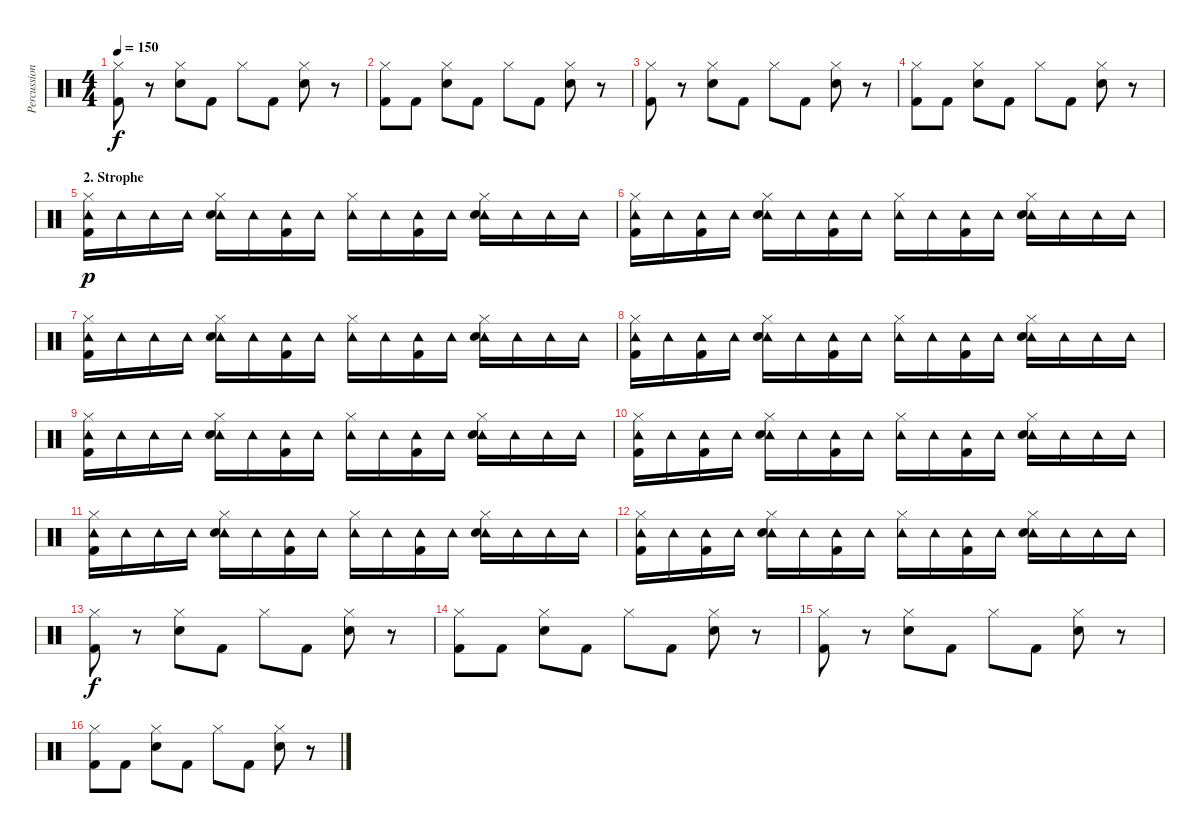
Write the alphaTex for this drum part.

\track ("Percussion" "Percussion") {instrument percussion}
\staff {score}
\articulation defaults
\ts (4 4)
\tempo 150
\clef neutral
\ks c
("Hi-Hat (closed)" "Kick (hit) 2").8{dy f} r.8 ("Hi-Hat (closed)" "Electric Snare (hit)").8 "Kick (hit) 2".8 "Hi-Hat (closed)".8 "Kick (hit) 2".8 ("Hi-Hat (closed)" "Electric Snare (hit)").8 r.8 |
("Hi-Hat (closed)" "Kick (hit) 2").8 "Kick (hit) 2".8 ("Hi-Hat (closed)" "Electric Snare (hit)").8 "Kick (hit) 2".8 "Hi-Hat (closed)".8 "Kick (hit) 2".8 ("Hi-Hat (closed)" "Electric Snare (hit)").8 r.8 |
("Hi-Hat (closed)" "Kick (hit) 2").8 r.8 ("Hi-Hat (closed)" "Electric Snare (hit)").8 "Kick (hit) 2".8 "Hi-Hat (closed)".8 "Kick (hit) 2".8 ("Hi-Hat (closed)" "Electric Snare (hit)").8 r.8 |
("Hi-Hat (closed)" "Kick (hit) 2").8 "Kick (hit) 2".8 ("Hi-Hat (closed)" "Electric Snare (hit)").8 "Kick (hit) 2".8 "Hi-Hat (closed)".8 "Kick (hit) 2".8 ("Hi-Hat (closed)" "Electric Snare (hit)").8 r.8 |
\section ("" "2. Strophe")
("Hi-Hat (closed)" "Tambourine (hit)" "Kick (hit) 2").16{dy p} "Tambourine (hit)".16 "Tambourine (hit)".16 "Tambourine (hit)".16 ("Hi-Hat (closed)" "Tambourine (hit)" "Electric Snare (hit)").16 "Tambourine (hit)".16 ("Tambourine (hit)" "Kick (hit) 2").16 "Tambourine (hit)".16 ("Hi-Hat (closed)" "Tambourine (hit)").16 "Tambourine (hit)".16 ("Tambourine (hit)" "Kick (hit) 2").16 "Tambourine (hit)".16 ("Hi-Hat (closed)" "Tambourine (hit)" "Electric Snare (hit)").16 "Tambourine (hit)".16 "Tambourine (hit)".16 "Tambourine (hit)".16 |
("Hi-Hat (closed)" "Tambourine (hit)" "Kick (hit) 2").16 "Tambourine (hit)".16 ("Tambourine (hit)" "Kick (hit) 2").16 "Tambourine (hit)".16 ("Hi-Hat (closed)" "Tambourine (hit)" "Electric Snare (hit)").16 "Tambourine (hit)".16 ("Tambourine (hit)" "Kick (hit) 2").16 "Tambourine (hit)".16 ("Hi-Hat (closed)" "Tambourine (hit)").16 "Tambourine (hit)".16 ("Tambourine (hit)" "Kick (hit) 2").16 "Tambourine (hit)".16 ("Hi-Hat (closed)" "Tambourine (hit)" "Electric Snare (hit)").16 "Tambourine (hit)".16 "Tambourine (hit)".16 "Tambourine (hit)".16 |
("Hi-Hat (closed)" "Tambourine (hit)" "Kick (hit) 2").16 "Tambourine (hit)".16 "Tambourine (hit)".16 "Tambourine (hit)".16 ("Hi-Hat (closed)" "Tambourine (hit)" "Electric Snare (hit)").16 "Tambourine (hit)".16 ("Tambourine (hit)" "Kick (hit) 2").16 "Tambourine (hit)".16 ("Hi-Hat (closed)" "Tambourine (hit)").16 "Tambourine (hit)".16 ("Tambourine (hit)" "Kick (hit) 2").16 "Tambourine (hit)".16 ("Hi-Hat (closed)" "Tambourine (hit)" "Electric Snare (hit)").16 "Tambourine (hit)".16 "Tambourine (hit)".16 "Tambourine (hit)".16 |
("Hi-Hat (closed)" "Tambourine (hit)" "Kick (hit) 2").16 "Tambourine (hit)".16 ("Tambourine (hit)" "Kick (hit) 2").16 "Tambourine (hit)".16 ("Hi-Hat (closed)" "Tambourine (hit)" "Electric Snare (hit)").16 "Tambourine (hit)".16 ("Tambourine (hit)" "Kick (hit) 2").16 "Tambourine (hit)".16 ("Hi-Hat (closed)" "Tambourine (hit)").16 "Tambourine (hit)".16 ("Tambourine (hit)" "Kick (hit) 2").16 "Tambourine (hit)".16 ("Hi-Hat (closed)" "Tambourine (hit)" "Electric Snare (hit)").16 "Tambourine (hit)".16 "Tambourine (hit)".16 "Tambourine (hit)".16 |
("Hi-Hat (closed)" "Tambourine (hit)" "Kick (hit) 2").16 "Tambourine (hit)".16 "Tambourine (hit)".16 "Tambourine (hit)".16 ("Hi-Hat (closed)" "Tambourine (hit)" "Electric Snare (hit)").16 "Tambourine (hit)".16 ("Tambourine (hit)" "Kick (hit) 2").16 "Tambourine (hit)".16 ("Hi-Hat (closed)" "Tambourine (hit)").16 "Tambourine (hit)".16 ("Tambourine (hit)" "Kick (hit) 2").16 "Tambourine (hit)".16 ("Hi-Hat (closed)" "Tambourine (hit)" "Electric Snare (hit)").16 "Tambourine (hit)".16 "Tambourine (hit)".16 "Tambourine (hit)".16 |
("Hi-Hat (closed)" "Tambourine (hit)" "Kick (hit) 2").16 "Tambourine (hit)".16 ("Tambourine (hit)" "Kick (hit) 2").16 "Tambourine (hit)".16 ("Hi-Hat (closed)" "Tambourine (hit)" "Electric Snare (hit)").16 "Tambourine (hit)".16 ("Tambourine (hit)" "Kick (hit) 2").16 "Tambourine (hit)".16 ("Hi-Hat (closed)" "Tambourine (hit)").16 "Tambourine (hit)".16 ("Tambourine (hit)" "Kick (hit) 2").16 "Tambourine (hit)".16 ("Hi-Hat (closed)" "Tambourine (hit)" "Electric Snare (hit)").16 "Tambourine (hit)".16 "Tambourine (hit)".16 "Tambourine (hit)".16 |
("Hi-Hat (closed)" "Tambourine (hit)" "Kick (hit) 2").16 "Tambourine (hit)".16 "Tambourine (hit)".16 "Tambourine (hit)".16 ("Hi-Hat (closed)" "Tambourine (hit)" "Electric Snare (hit)").16 "Tambourine (hit)".16 ("Tambourine (hit)" "Kick (hit) 2").16 "Tambourine (hit)".16 ("Hi-Hat (closed)" "Tambourine (hit)").16 "Tambourine (hit)".16 ("Tambourine (hit)" "Kick (hit) 2").16 "Tambourine (hit)".16 ("Hi-Hat (closed)" "Tambourine (hit)" "Electric Snare (hit)").16 "Tambourine (hit)".16 "Tambourine (hit)".16 "Tambourine (hit)".16 |
("Hi-Hat (closed)" "Tambourine (hit)" "Kick (hit) 2").16 "Tambourine (hit)".16 ("Tambourine (hit)" "Kick (hit) 2").16 "Tambourine (hit)".16 ("Hi-Hat (closed)" "Tambourine (hit)" "Electric Snare (hit)").16 "Tambourine (hit)".16 ("Tambourine (hit)" "Kick (hit) 2").16 "Tambourine (hit)".16 ("Hi-Hat (closed)" "Tambourine (hit)").16 "Tambourine (hit)".16 ("Tambourine (hit)" "Kick (hit) 2").16 "Tambourine (hit)".16 ("Hi-Hat (closed)" "Tambourine (hit)" "Electric Snare (hit)").16 "Tambourine (hit)".16 "Tambourine (hit)".16 "Tambourine (hit)".16 |
("Hi-Hat (closed)" "Kick (hit) 2").8{dy f} r.8 ("Hi-Hat (closed)" "Electric Snare (hit)").8 "Kick (hit) 2".8 "Hi-Hat (closed)".8 "Kick (hit) 2".8 ("Hi-Hat (closed)" "Electric Snare (hit)").8 r.8 |
("Hi-Hat (closed)" "Kick (hit) 2").8 "Kick (hit) 2".8 ("Hi-Hat (closed)" "Electric Snare (hit)").8 "Kick (hit) 2".8 "Hi-Hat (closed)".8 "Kick (hit) 2".8 ("Hi-Hat (closed)" "Electric Snare (hit)").8 r.8 |
("Hi-Hat (closed)" "Kick (hit) 2").8 r.8 ("Hi-Hat (closed)" "Electric Snare (hit)").8 "Kick (hit) 2".8 "Hi-Hat (closed)".8 "Kick (hit) 2".8 ("Hi-Hat (closed)" "Electric Snare (hit)").8 r.8 |
("Hi-Hat (closed)" "Kick (hit) 2").8 "Kick (hit) 2".8 ("Hi-Hat (closed)" "Electric Snare (hit)").8 "Kick (hit) 2".8 "Hi-Hat (closed)".8 "Kick (hit) 2".8 ("Hi-Hat (closed)" "Electric Snare (hit)").8 r.8
